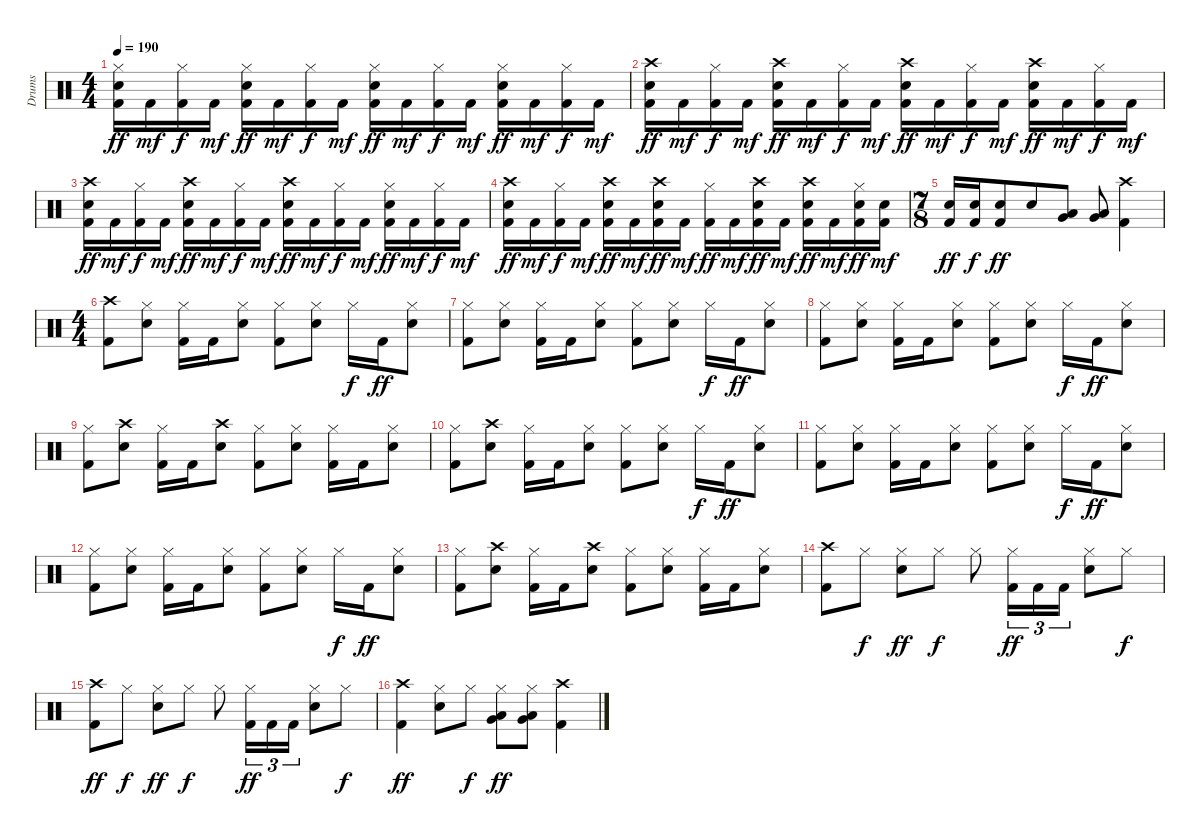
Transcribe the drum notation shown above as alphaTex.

\track ("Drums" "Drums") {instrument percussion}
\staff {score}
\articulation defaults
\ts (4 4)
\tempo 190
\clef neutral
\ks c
("Hi-Hat (closed)" "Snare (hit) 2" "Kick (hit) 2").16{dy ff} "Kick (hit) 2".16{dy mf} ("Hi-Hat (closed)" "Kick (hit) 2").16{dy f} "Kick (hit) 2".16{dy mf} ("Hi-Hat (closed)" "Snare (hit) 2" "Kick (hit) 2").16{dy ff} "Kick (hit) 2".16{dy mf} ("Hi-Hat (closed)" "Kick (hit) 2").16{dy f} "Kick (hit) 2".16{dy mf} ("Hi-Hat (closed)" "Snare (hit) 2" "Kick (hit) 2").16{dy ff} "Kick (hit) 2".16{dy mf} ("Hi-Hat (closed)" "Kick (hit) 2").16{dy f} "Kick (hit) 2".16{dy mf} ("Hi-Hat (closed)" "Snare (hit) 2" "Kick (hit) 2").16{dy ff} "Kick (hit) 2".16{dy mf} ("Hi-Hat (closed)" "Kick (hit) 2").16{dy f} "Kick (hit) 2".16{dy mf} |
("Crash high (hit)" "Snare (hit) 2" "Kick (hit) 2").16{dy ff} "Kick (hit) 2".16{dy mf} ("Hi-Hat (closed)" "Kick (hit) 2").16{dy f} "Kick (hit) 2".16{dy mf} ("Crash high (hit)" "Snare (hit) 2" "Kick (hit) 2").16{dy ff} "Kick (hit) 2".16{dy mf} ("Hi-Hat (closed)" "Kick (hit) 2").16{dy f} "Kick (hit) 2".16{dy mf} ("Crash high (hit)" "Snare (hit) 2" "Kick (hit) 2").16{dy ff} "Kick (hit) 2".16{dy mf} ("Hi-Hat (closed)" "Kick (hit) 2").16{dy f} "Kick (hit) 2".16{dy mf} ("Crash high (hit)" "Snare (hit) 2" "Kick (hit) 2").16{dy ff} "Kick (hit) 2".16{dy mf} ("Hi-Hat (closed)" "Kick (hit) 2").16{dy f} "Kick (hit) 2".16{dy mf} |
("Crash high (hit)" "Snare (hit) 2" "Kick (hit) 2").16{dy ff} "Kick (hit) 2".16{dy mf} ("Hi-Hat (closed)" "Kick (hit) 2").16{dy f} "Kick (hit) 2".16{dy mf} ("Crash high (hit)" "Snare (hit) 2" "Kick (hit) 2").16{dy ff} "Kick (hit) 2".16{dy mf} ("Hi-Hat (closed)" "Kick (hit) 2").16{dy f} "Kick (hit) 2".16{dy mf} ("Crash high (hit)" "Snare (hit) 2" "Kick (hit) 2").16{dy ff} "Kick (hit) 2".16{dy mf} ("Hi-Hat (closed)" "Kick (hit) 2").16{dy f} "Kick (hit) 2".16{dy mf} ("Hi-Hat (closed)" "Snare (hit) 2" "Kick (hit) 2").16{dy ff} "Kick (hit) 2".16{dy mf} ("Hi-Hat (closed)" "Kick (hit) 2").16{dy f} "Kick (hit) 2".16{dy mf} |
("Crash high (hit)" "Snare (hit) 2" "Kick (hit) 2").16{dy ff} "Kick (hit) 2".16{dy mf} ("Hi-Hat (closed)" "Kick (hit) 2").16{dy f} "Kick (hit) 2".16{dy mf} ("Crash high (hit)" "Snare (hit) 2" "Kick (hit) 2").16{dy ff} "Kick (hit) 2".16{dy mf} ("Crash high (hit)" "Snare (hit) 2" "Kick (hit) 2").16{dy ff} "Kick (hit) 2".16{dy mf} ("Hi-Hat (closed)" "Kick (hit) 2").16{dy ff} "Kick (hit) 2".16{dy mf} ("Crash high (hit)" "Snare (hit) 2" "Kick (hit) 2").16{dy ff} "Kick (hit) 2".16{dy mf} ("Crash high (hit)" "Snare (hit) 2" "Kick (hit) 2").16{dy ff} "Kick (hit) 2".16{dy mf} ("Hi-Hat (closed)" "Snare (hit) 2" "Kick (hit) 2").16{dy ff} ("Snare (hit) 2" "Kick (hit) 2").16{dy mf} |
\ts (7 8)
("Snare (hit) 2" "Kick (hit) 2").16{dy ff} ("Snare (hit) 2" "Kick (hit) 2").16{dy f} ("Snare (hit) 2" "Kick (hit) 2").8{dy ff} "Snare (hit) 2".8 ("Very Low Tom (hit)" "Low Floor Tom (hit)").8 ("Very Low Tom (hit)" "Low Floor Tom (hit)").8 ("Crash high (hit)" "Kick (hit) 2").4 |
\ts (4 4)
("Crash high (hit)" "Kick (hit) 2").8 ("Hi-Hat (closed)" "Snare (hit) 2").8 ("Hi-Hat (closed)" "Kick (hit) 2").16 "Kick (hit) 2".16 ("Hi-Hat (closed)" "Snare (hit) 2").8 ("Hi-Hat (closed)" "Kick (hit) 2").8 ("Hi-Hat (closed)" "Snare (hit) 2").8 "Hi-Hat (closed)".16{dy f} "Kick (hit) 2".16{dy ff} ("Hi-Hat (closed)" "Snare (hit) 2").8 |
("Hi-Hat (closed)" "Kick (hit) 2").8 ("Hi-Hat (closed)" "Snare (hit) 2").8 ("Hi-Hat (closed)" "Kick (hit) 2").16 "Kick (hit) 2".16 ("Hi-Hat (closed)" "Snare (hit) 2").8 ("Hi-Hat (closed)" "Kick (hit) 2").8 ("Hi-Hat (closed)" "Snare (hit) 2").8 "Hi-Hat (closed)".16{dy f} "Kick (hit) 2".16{dy ff} ("Hi-Hat (closed)" "Snare (hit) 2").8 |
("Hi-Hat (closed)" "Kick (hit) 2").8 ("Hi-Hat (closed)" "Snare (hit) 2").8 ("Hi-Hat (closed)" "Kick (hit) 2").16 "Kick (hit) 2".16 ("Hi-Hat (closed)" "Snare (hit) 2").8 ("Hi-Hat (closed)" "Kick (hit) 2").8 ("Hi-Hat (closed)" "Snare (hit) 2").8 "Hi-Hat (closed)".16{dy f} "Kick (hit) 2".16{dy ff} ("Hi-Hat (closed)" "Snare (hit) 2").8 |
("Hi-Hat (closed)" "Kick (hit) 2").8 ("Crash high (hit)" "Snare (hit) 2").8 ("Hi-Hat (closed)" "Kick (hit) 2").16 "Kick (hit) 2".16 ("Crash high (hit)" "Snare (hit) 2").8 ("Hi-Hat (closed)" "Kick (hit) 2").8 ("Hi-Hat (closed)" "Snare (hit) 2").8 ("Hi-Hat (closed)" "Kick (hit) 2").16 "Kick (hit) 2".16 ("Hi-Hat (closed)" "Snare (hit) 2").8 |
("Hi-Hat (closed)" "Kick (hit) 2").8 ("Crash high (hit)" "Snare (hit) 2").8 ("Hi-Hat (closed)" "Kick (hit) 2").16 "Kick (hit) 2".16 ("Hi-Hat (closed)" "Snare (hit) 2").8 ("Hi-Hat (closed)" "Kick (hit) 2").8 ("Hi-Hat (closed)" "Snare (hit) 2").8 "Hi-Hat (closed)".16{dy f} "Kick (hit) 2".16{dy ff} ("Hi-Hat (closed)" "Snare (hit) 2").8 |
("Hi-Hat (closed)" "Kick (hit) 2").8 ("Hi-Hat (closed)" "Snare (hit) 2").8 ("Hi-Hat (closed)" "Kick (hit) 2").16 "Kick (hit) 2".16 ("Hi-Hat (closed)" "Snare (hit) 2").8 ("Hi-Hat (closed)" "Kick (hit) 2").8 ("Hi-Hat (closed)" "Snare (hit) 2").8 "Hi-Hat (closed)".16{dy f} "Kick (hit) 2".16{dy ff} ("Hi-Hat (closed)" "Snare (hit) 2").8 |
("Hi-Hat (closed)" "Kick (hit) 2").8 ("Hi-Hat (closed)" "Snare (hit) 2").8 ("Hi-Hat (closed)" "Kick (hit) 2").16 "Kick (hit) 2".16 ("Hi-Hat (closed)" "Snare (hit) 2").8 ("Hi-Hat (closed)" "Kick (hit) 2").8 ("Hi-Hat (closed)" "Snare (hit) 2").8 "Hi-Hat (closed)".16{dy f} "Kick (hit) 2".16{dy ff} ("Hi-Hat (closed)" "Snare (hit) 2").8 |
("Hi-Hat (closed)" "Kick (hit) 2").8 ("Crash high (hit)" "Snare (hit) 2").8 ("Hi-Hat (closed)" "Kick (hit) 2").16 "Kick (hit) 2".16 ("Crash high (hit)" "Snare (hit) 2").8 ("Hi-Hat (closed)" "Kick (hit) 2").8 ("Hi-Hat (closed)" "Snare (hit) 2").8 ("Hi-Hat (closed)" "Kick (hit) 2").16 "Kick (hit) 2".16 ("Hi-Hat (closed)" "Snare (hit) 2").8 |
("Crash high (hit)" "Kick (hit) 2").8 "Hi-Hat (closed)".8{dy f} ("Hi-Hat (closed)" "Snare (hit) 2").8{dy ff} "Hi-Hat (closed)".8{dy f} "Hi-Hat (closed)".8 ("Hi-Hat (closed)" "Kick (hit) 2").16{tu (3 2) dy ff} "Kick (hit) 2".16{tu (3 2)} "Kick (hit) 2".16{tu (3 2)} ("Hi-Hat (closed)" "Snare (hit) 2").8 "Hi-Hat (closed)".8{dy f} |
("Crash high (hit)" "Kick (hit) 2").8{dy ff} "Hi-Hat (closed)".8{dy f} ("Hi-Hat (closed)" "Snare (hit) 2").8{dy ff} "Hi-Hat (closed)".8{dy f} "Hi-Hat (closed)".8 ("Hi-Hat (closed)" "Kick (hit) 2").16{tu (3 2) dy ff} "Kick (hit) 2".16{tu (3 2)} "Kick (hit) 2".16{tu (3 2)} ("Hi-Hat (closed)" "Snare (hit) 2").8 "Hi-Hat (closed)".8{dy f} |
("Crash high (hit)" "Kick (hit) 2").4{dy ff} ("Hi-Hat (closed)" "Snare (hit) 2").8 "Hi-Hat (closed)".8{dy f} ("Hi-Hat (closed)" "Very Low Tom (hit)" "Low Floor Tom (hit)").8{dy ff} ("Hi-Hat (closed)" "Very Low Tom (hit)" "Low Floor Tom (hit)").8 ("Crash high (hit)" "Kick (hit) 2").4
